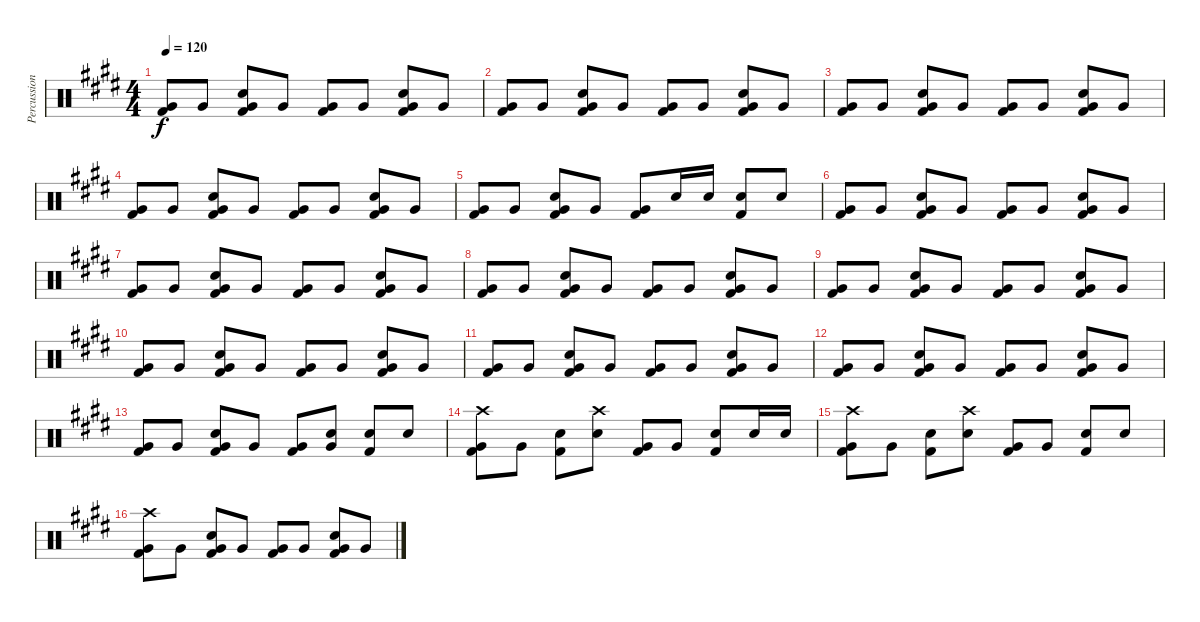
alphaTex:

\track ("Percussion" "Percussion") {instrument percussion}
\staff {score}
\articulation defaults
\ts (4 4)
\tempo 120
\clef neutral
\ks e
("Very Low Tom (hit)" "Kick (hit) 2").8{dy f} "Very Low Tom (hit)".8 ("Snare (hit) 2" "Very Low Tom (hit)" "Kick (hit) 2").8 "Very Low Tom (hit)".8 ("Very Low Tom (hit)" "Kick (hit) 2").8 "Very Low Tom (hit)".8 ("Snare (hit) 2" "Very Low Tom (hit)" "Kick (hit) 2").8 "Very Low Tom (hit)".8 |
("Very Low Tom (hit)" "Kick (hit) 2").8 "Very Low Tom (hit)".8 ("Snare (hit) 2" "Very Low Tom (hit)" "Kick (hit) 2").8 "Very Low Tom (hit)".8 ("Very Low Tom (hit)" "Kick (hit) 2").8 "Very Low Tom (hit)".8 ("Snare (hit) 2" "Very Low Tom (hit)" "Kick (hit) 2").8 "Very Low Tom (hit)".8 |
("Very Low Tom (hit)" "Kick (hit) 2").8 "Very Low Tom (hit)".8 ("Snare (hit) 2" "Very Low Tom (hit)" "Kick (hit) 2").8 "Very Low Tom (hit)".8 ("Very Low Tom (hit)" "Kick (hit) 2").8 "Very Low Tom (hit)".8 ("Snare (hit) 2" "Very Low Tom (hit)" "Kick (hit) 2").8 "Very Low Tom (hit)".8 |
("Very Low Tom (hit)" "Kick (hit) 2").8 "Very Low Tom (hit)".8 ("Snare (hit) 2" "Very Low Tom (hit)" "Kick (hit) 2").8 "Very Low Tom (hit)".8 ("Very Low Tom (hit)" "Kick (hit) 2").8 "Very Low Tom (hit)".8 ("Snare (hit) 2" "Very Low Tom (hit)" "Kick (hit) 2").8 "Very Low Tom (hit)".8 |
("Very Low Tom (hit)" "Kick (hit) 2").8 "Very Low Tom (hit)".8 ("Snare (hit) 2" "Very Low Tom (hit)" "Kick (hit) 2").8 "Very Low Tom (hit)".8 ("Very Low Tom (hit)" "Kick (hit) 2").8 "Snare (hit) 2".16 "Snare (hit) 2".16 ("Snare (hit) 2" "Kick (hit) 2").8 "Snare (hit) 2".8 |
("Very Low Tom (hit)" "Kick (hit) 2").8 "Very Low Tom (hit)".8 ("Snare (hit) 2" "Very Low Tom (hit)" "Kick (hit) 2").8 "Very Low Tom (hit)".8 ("Very Low Tom (hit)" "Kick (hit) 2").8 "Very Low Tom (hit)".8 ("Snare (hit) 2" "Very Low Tom (hit)" "Kick (hit) 2").8 "Very Low Tom (hit)".8 |
("Very Low Tom (hit)" "Kick (hit) 2").8 "Very Low Tom (hit)".8 ("Snare (hit) 2" "Very Low Tom (hit)" "Kick (hit) 2").8 "Very Low Tom (hit)".8 ("Very Low Tom (hit)" "Kick (hit) 2").8 "Very Low Tom (hit)".8 ("Snare (hit) 2" "Very Low Tom (hit)" "Kick (hit) 2").8 "Very Low Tom (hit)".8 |
("Very Low Tom (hit)" "Kick (hit) 2").8 "Very Low Tom (hit)".8 ("Snare (hit) 2" "Very Low Tom (hit)" "Kick (hit) 2").8 "Very Low Tom (hit)".8 ("Very Low Tom (hit)" "Kick (hit) 2").8 "Very Low Tom (hit)".8 ("Snare (hit) 2" "Very Low Tom (hit)" "Kick (hit) 2").8 "Very Low Tom (hit)".8 |
("Very Low Tom (hit)" "Kick (hit) 2").8 "Very Low Tom (hit)".8 ("Snare (hit) 2" "Very Low Tom (hit)" "Kick (hit) 2").8 "Very Low Tom (hit)".8 ("Very Low Tom (hit)" "Kick (hit) 2").8 "Very Low Tom (hit)".8 ("Snare (hit) 2" "Very Low Tom (hit)" "Kick (hit) 2").8 "Very Low Tom (hit)".8 |
("Very Low Tom (hit)" "Kick (hit) 2").8 "Very Low Tom (hit)".8 ("Snare (hit) 2" "Very Low Tom (hit)" "Kick (hit) 2").8 "Very Low Tom (hit)".8 ("Very Low Tom (hit)" "Kick (hit) 2").8 "Very Low Tom (hit)".8 ("Snare (hit) 2" "Very Low Tom (hit)" "Kick (hit) 2").8 "Very Low Tom (hit)".8 |
("Very Low Tom (hit)" "Kick (hit) 2").8 "Very Low Tom (hit)".8 ("Snare (hit) 2" "Very Low Tom (hit)" "Kick (hit) 2").8 "Very Low Tom (hit)".8 ("Very Low Tom (hit)" "Kick (hit) 2").8 "Very Low Tom (hit)".8 ("Snare (hit) 2" "Very Low Tom (hit)" "Kick (hit) 2").8 "Very Low Tom (hit)".8 |
("Very Low Tom (hit)" "Kick (hit) 2").8 "Very Low Tom (hit)".8 ("Snare (hit) 2" "Very Low Tom (hit)" "Kick (hit) 2").8 "Very Low Tom (hit)".8 ("Very Low Tom (hit)" "Kick (hit) 2").8 "Very Low Tom (hit)".8 ("Snare (hit) 2" "Very Low Tom (hit)" "Kick (hit) 2").8 "Very Low Tom (hit)".8 |
("Very Low Tom (hit)" "Kick (hit) 2").8 "Very Low Tom (hit)".8 ("Snare (hit) 2" "Very Low Tom (hit)" "Kick (hit) 2").8 "Very Low Tom (hit)".8 ("Very Low Tom (hit)" "Kick (hit) 2").8 ("Snare (hit) 2" "Very Low Tom (hit)").8 ("Snare (hit) 2" "Kick (hit) 2").8 "Snare (hit) 2".8 |
("Crash high (hit)" "Very Low Tom (hit)" "Kick (hit) 2").8 "Very Low Tom (hit)".8 ("Snare (hit) 2" "Kick (hit) 2").8 ("Crash high (hit)" "Snare (hit) 2").8 ("Very Low Tom (hit)" "Kick (hit) 2").8 "Very Low Tom (hit)".8 ("Snare (hit) 2" "Kick (hit) 2").8 "Snare (hit) 2".16 "Snare (hit) 2".16 |
("Crash high (hit)" "Very Low Tom (hit)" "Kick (hit) 2").8 "Very Low Tom (hit)".8 ("Snare (hit) 2" "Kick (hit) 2").8 ("Crash high (hit)" "Snare (hit) 2").8 ("Very Low Tom (hit)" "Kick (hit) 2").8 "Very Low Tom (hit)".8 ("Snare (hit) 2" "Kick (hit) 2").8 "Snare (hit) 2".8 |
("Crash high (hit)" "Very Low Tom (hit)" "Kick (hit) 2").8 "Very Low Tom (hit)".8 ("Snare (hit) 2" "Very Low Tom (hit)" "Kick (hit) 2").8 "Very Low Tom (hit)".8 ("Very Low Tom (hit)" "Kick (hit) 2").8 "Very Low Tom (hit)".8 ("Snare (hit) 2" "Very Low Tom (hit)" "Kick (hit) 2").8 "Very Low Tom (hit)".8
